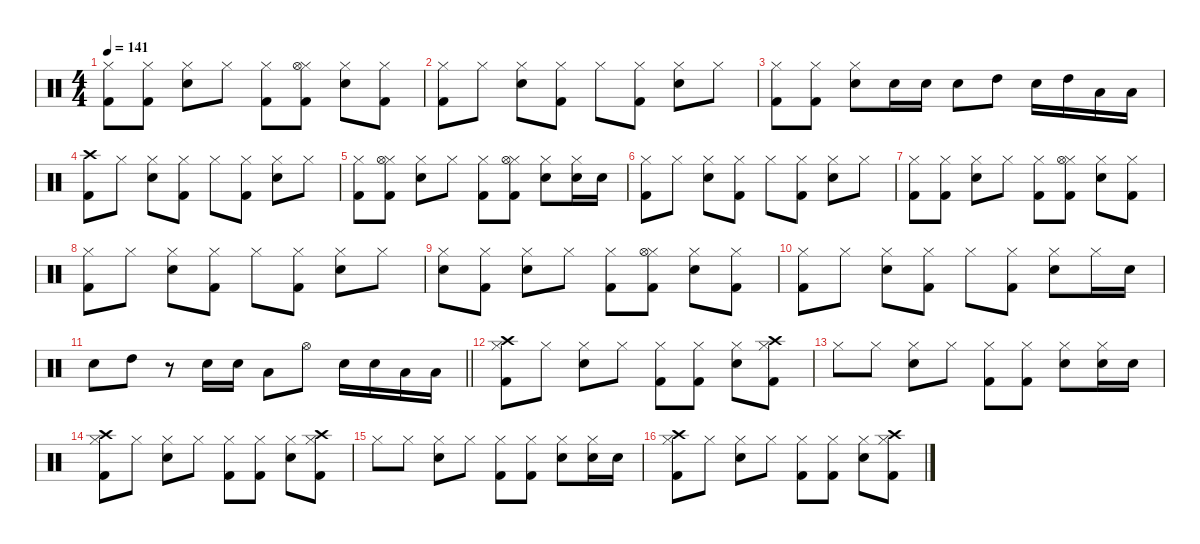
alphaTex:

\defaultSystemsLayout 4
\hideDynamics
\bracketExtendMode nobrackets
\singleTrackTrackNamePolicy hidden
\multiTrackTrackNamePolicy hidden
\otherSystemsTrackNameOrientation horizontal
\track ("Drum" "drm.") {instrument percussion}
\staff {score}
\articulation defaults
\ts (4 4)
\tempo 141
\clef neutral
\ks c
("Hi-Hat (closed)" "Kick (hit) 2").8{dy fff beam Down} ("Hi-Hat (closed)" "Kick (hit) 2").8{beam Down} ("Hi-Hat (closed)" "Snare (hit) 2").8{beam Down} "Hi-Hat (closed)".8{dy f beam Down} ("Hi-Hat (closed)" "Kick (hit) 2").8{dy fff beam Down} ("Hi-Hat (closed)" "Kick (hit) 2" "Hi-Hat (open)").8{beam Down} ("Hi-Hat (closed)" "Snare (hit) 2").8{beam Down} ("Hi-Hat (closed)" "Kick (hit) 2").8{dy f beam Down} |
("Hi-Hat (closed)" "Kick (hit) 2").8{dy fff beam Down} "Hi-Hat (closed)".8{dy f beam Down} ("Hi-Hat (closed)" "Snare (hit) 2").8{dy fff beam Down} ("Hi-Hat (closed)" "Kick (hit) 2").8{dy f beam Down} "Hi-Hat (closed)".8{dy fff beam Down} ("Hi-Hat (closed)" "Kick (hit) 2").8{beam Down} ("Hi-Hat (closed)" "Snare (hit) 2").8{beam Down} "Hi-Hat (closed)".8{dy f beam Down} |
("Hi-Hat (closed)" "Kick (hit) 2").8{dy fff beam Down} ("Hi-Hat (closed)" "Kick (hit) 2").8{beam Down} ("Hi-Hat (closed)" "Snare (hit) 2").8{beam Down} "Snare (hit) 2".16{beam Down} "Snare (hit) 2".16{beam Down} "Snare (hit) 2".8{beam Down} "High Tom (hit)".8{beam Down} "Snare (hit) 2".16{beam Down} "High Tom (hit)".16{beam Down} "Low Tom (hit)".16{beam Down} "Low Floor Tom (hit)".16{beam Down} |
("Kick (hit) 2" "Crash high (hit)").8{beam Down} "Hi-Hat (closed)".8{dy f beam Down} ("Snare (hit) 2" "Hi-Hat (closed)").8{dy fff beam Down} ("Kick (hit) 2" "Hi-Hat (closed)").8{beam Down} "Hi-Hat (closed)".8{dy f beam Down} ("Kick (hit) 2" "Hi-Hat (closed)").8{dy fff beam Down} ("Snare (hit) 2" "Hi-Hat (closed)").8{beam Down} "Hi-Hat (closed)".8{dy f beam Down} |
("Kick (hit) 2" "Hi-Hat (closed)").8{dy fff beam Down} ("Kick (hit) 2" "Hi-Hat (closed)" "Hi-Hat (open)").8{beam Down} ("Snare (hit) 2" "Hi-Hat (closed)").8{beam Down} "Hi-Hat (closed)".8{dy f beam Down} ("Kick (hit) 2" "Hi-Hat (closed)").8{dy fff beam Down} ("Kick (hit) 2" "Hi-Hat (closed)" "Hi-Hat (open)").8{dy f beam Down} ("Snare (hit) 2" "Hi-Hat (closed)").8{dy fff beam Down} ("Snare (hit) 2" "Hi-Hat (closed)").16{beam Down} "Snare (hit) 2".16{beam Down} |
("Kick (hit) 2" "Hi-Hat (closed)").8{beam Down} "Hi-Hat (closed)".8{dy f beam Down} ("Snare (hit) 2" "Hi-Hat (closed)").8{dy fff beam Down} ("Kick (hit) 2" "Hi-Hat (closed)").8{beam Down} "Hi-Hat (closed)".8{dy f beam Down} ("Kick (hit) 2" "Hi-Hat (closed)").8{dy fff beam Down} ("Snare (hit) 2" "Hi-Hat (closed)").8{beam Down} "Hi-Hat (closed)".8{dy f beam Down} |
("Kick (hit) 2" "Hi-Hat (closed)").8{dy fff beam Down} ("Kick (hit) 2" "Hi-Hat (closed)").8{beam Down} ("Snare (hit) 2" "Hi-Hat (closed)").8{beam Down} "Hi-Hat (closed)".8{dy f beam Down} ("Kick (hit) 2" "Hi-Hat (closed)").8{dy fff beam Down} ("Kick (hit) 2" "Hi-Hat (closed)" "Hi-Hat (open)").8{beam Down} ("Snare (hit) 2" "Hi-Hat (closed)").8{beam Down} ("Kick (hit) 2" "Hi-Hat (closed)").8{beam Down} |
("Kick (hit) 2" "Hi-Hat (closed)").8{beam Down} "Hi-Hat (closed)".8{dy f beam Down} ("Snare (hit) 2" "Hi-Hat (closed)").8{dy fff beam Down} ("Kick (hit) 2" "Hi-Hat (closed)").8{beam Down} "Hi-Hat (closed)".8{dy f beam Down} ("Kick (hit) 2" "Hi-Hat (closed)").8{dy fff beam Down} ("Snare (hit) 2" "Hi-Hat (closed)").8{beam Down} "Hi-Hat (closed)".8{dy f beam Down} |
("Snare (hit) 2" "Hi-Hat (closed)").8{dy fff beam Down} ("Kick (hit) 2" "Hi-Hat (closed)").8{beam Down} ("Snare (hit) 2" "Hi-Hat (closed)").8{beam Down} "Hi-Hat (closed)".8{dy f beam Down} ("Kick (hit) 2" "Hi-Hat (closed)").8{dy fff beam Down} ("Kick (hit) 2" "Hi-Hat (closed)" "Hi-Hat (open)").8{beam Down} ("Snare (hit) 2" "Hi-Hat (closed)").8{beam Down} ("Kick (hit) 2" "Hi-Hat (closed)").8{beam Down} |
("Kick (hit) 2" "Hi-Hat (closed)").8{beam Down} "Hi-Hat (closed)".8{dy f beam Down} ("Snare (hit) 2" "Hi-Hat (closed)").8{dy fff beam Down} ("Kick (hit) 2" "Hi-Hat (closed)").8{beam Down} "Hi-Hat (closed)".8{dy f beam Down} ("Kick (hit) 2" "Hi-Hat (closed)").8{dy fff beam Down} ("Snare (hit) 2" "Hi-Hat (closed)").8{beam Down} "Hi-Hat (closed)".16{dy f beam Down} "Snare (hit) 2".16{dy mf beam Down} |
\barLineRight lightlight "Snare (hit) 2".8{dy fff beam Down} "High Tom (hit)".8{beam Down}
r.8{beam Down} "Snare (hit) 2".16{dy mf beam Down} "Snare (hit) 2".16{dy fff beam Down} "Low Tom (hit)".8{beam Down} "Hi-Hat (open)".8{beam Down} "Snare (hit) 2".16{beam Down} "Snare (hit) 2".16{beam Down} "Low Tom (hit)".16{beam Down} "Low Floor Tom (hit)".16{beam Down} |
("Kick (hit) 2" "Hi-Hat (closed)" "Crash high (hit)").8{beam Down} "Hi-Hat (closed)".8{dy f beam Down} ("Snare (hit) 2" "Hi-Hat (closed)").8{dy fff beam Down} "Hi-Hat (closed)".8{dy f beam Down} ("Kick (hit) 2" "Hi-Hat (closed)").8{dy fff beam Down} ("Kick (hit) 2" "Hi-Hat (closed)").8{dy f beam Down} ("Snare (hit) 2" "Hi-Hat (closed)").8{dy fff beam Down} ("Kick (hit) 2" "Hi-Hat (closed)" "Crash high (hit)").8{beam Down} |
"Hi-Hat (closed)".8{dy f beam Down} "Hi-Hat (closed)".8{beam Down} ("Snare (hit) 2" "Hi-Hat (closed)").8{dy fff beam Down} "Hi-Hat (closed)".8{dy f beam Down} ("Kick (hit) 2" "Hi-Hat (closed)").8{dy fff beam Down} ("Kick (hit) 2" "Hi-Hat (closed)").8{beam Down} ("Snare (hit) 2" "Hi-Hat (closed)").8{beam Down} ("Snare (hit) 2" "Hi-Hat (closed)").16{beam Down} "Snare (hit) 2".16{beam Down} |
("Hi-Hat (closed)" "Kick (hit) 2" "Crash high (hit)").8{beam Down} "Hi-Hat (closed)".8{dy f beam Down} ("Hi-Hat (closed)" "Snare (hit) 2").8{dy fff beam Down} "Hi-Hat (closed)".8{dy f beam Down} ("Hi-Hat (closed)" "Kick (hit) 2").8{dy fff beam Down} ("Hi-Hat (closed)" "Kick (hit) 2").8{dy f beam Down} ("Hi-Hat (closed)" "Snare (hit) 2").8{dy fff beam Down} ("Hi-Hat (closed)" "Kick (hit) 2" "Crash high (hit)").8{dy f beam Down} |
"Hi-Hat (closed)".8{dy fff beam Down} "Hi-Hat (closed)".8{dy f beam Down} ("Hi-Hat (closed)" "Snare (hit) 2").8{dy fff beam Down} "Hi-Hat (closed)".8{dy f beam Down} ("Hi-Hat (closed)" "Kick (hit) 2").8{dy fff beam Down} ("Hi-Hat (closed)" "Kick (hit) 2").8{beam Down} ("Hi-Hat (closed)" "Snare (hit) 2").8{beam Down} ("Hi-Hat (closed)" "Snare (hit) 2").16{beam Down} "Snare (hit) 2".16{dy f beam Down} |
("Kick (hit) 2" "Hi-Hat (closed)" "Crash high (hit)").8{dy fff beam Down} "Hi-Hat (closed)".8{dy f beam Down} ("Snare (hit) 2" "Hi-Hat (closed)").8{dy fff beam Down} "Hi-Hat (closed)".8{dy f beam Down} ("Kick (hit) 2" "Hi-Hat (closed)").8{dy fff beam Down} ("Kick (hit) 2" "Hi-Hat (closed)").8{beam Down} ("Snare (hit) 2" "Hi-Hat (closed)").8{beam Down} ("Kick (hit) 2" "Hi-Hat (closed)" "Crash high (hit)").8{beam Down}
